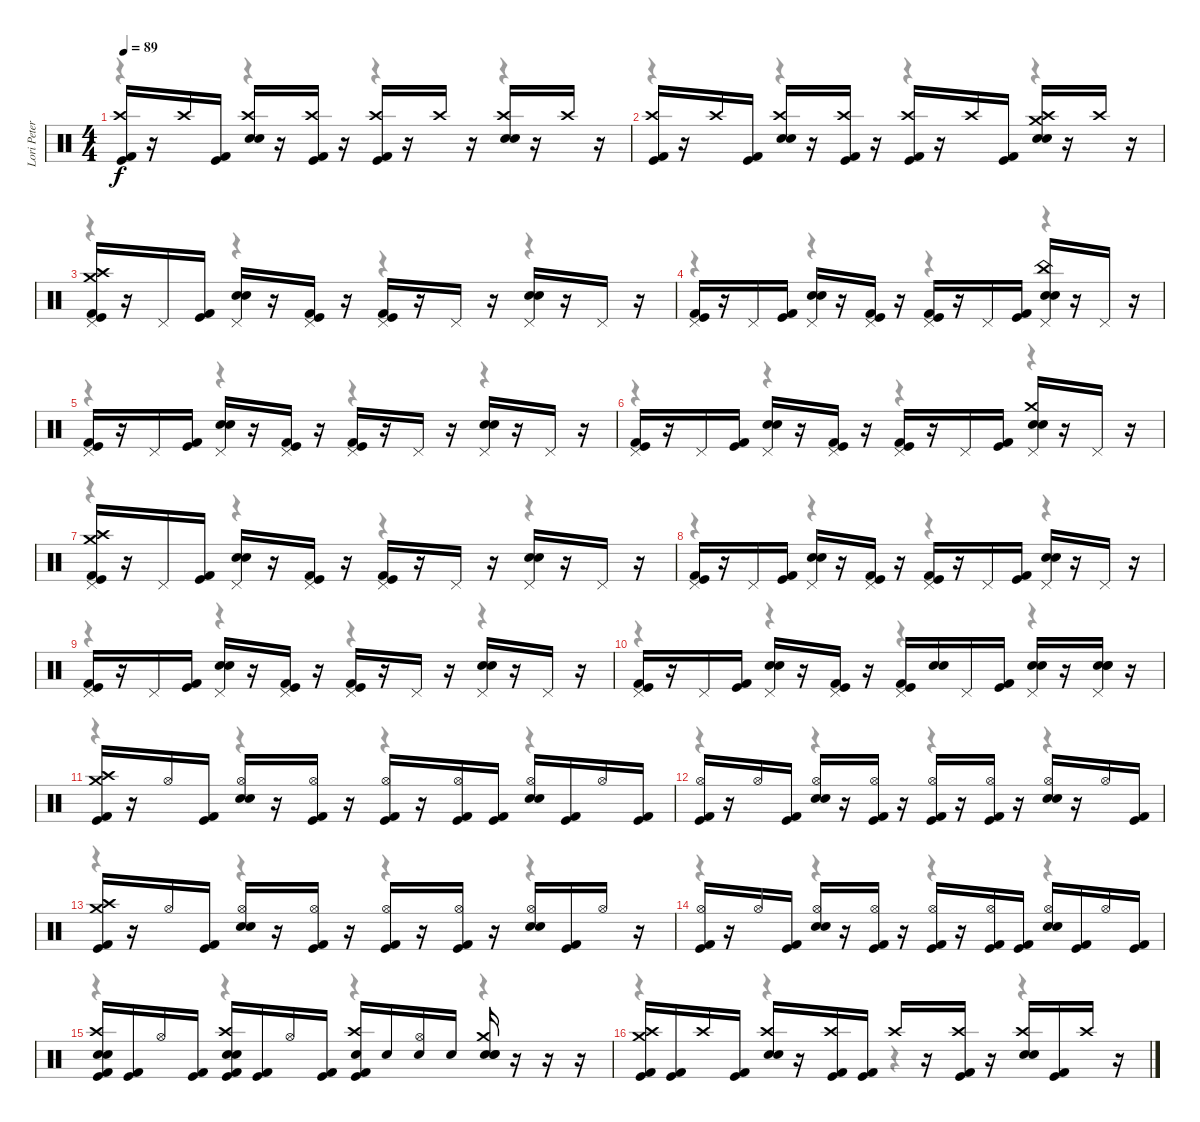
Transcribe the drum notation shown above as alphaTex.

\track ("Lori Peters" "Lori Peter") {instrument percussion}
\staff {score}
\articulation defaults
\voice
\ts (4 4)
\tempo 89
\clef neutral
\ks c
("Crash high (hit)" "Kick (hit) 2" "Kick (hit)").16{dy f} r.16 "Crash high (hit)".16 ("Kick (hit) 2" "Kick (hit)").16 ("Crash high (hit)" "Snare (hit) 2" "Snare (hit) 2").16 r.16 ("Crash high (hit)" "Kick (hit) 2" "Kick (hit)").16 r.16 ("Crash high (hit)" "Kick (hit) 2" "Kick (hit)").16 r.16 "Crash high (hit)".16 r.16 ("Crash high (hit)" "Snare (hit) 2" "Snare (hit) 2").16 r.16 "Crash high (hit)".16 r.16 |
("Crash high (hit)" "Kick (hit) 2" "Kick (hit)").16 r.16 "Crash high (hit)".16 ("Kick (hit) 2" "Kick (hit)").16 ("Crash high (hit)" "Snare (hit) 2" "Snare (hit) 2").16 r.16 ("Crash high (hit)" "Kick (hit) 2" "Kick (hit)").16 r.16 ("Crash high (hit)" "Kick (hit) 2" "Kick (hit)").16 r.16 "Crash high (hit)".16 ("Kick (hit) 2" "Kick (hit)").16 ("Crash high (hit)" "Crash medium (hit)" "Snare (hit) 2" "Snare (hit) 2").16 r.16 "Crash high (hit)".16 r.16 |
("Pedal Hi-Hat (hit)" "Crash medium (hit)" "Crash high (hit)" "Kick (hit) 2" "Kick (hit)").16 r.16 "Pedal Hi-Hat (hit)".16 ("Kick (hit) 2" "Kick (hit)").16 ("Pedal Hi-Hat (hit)" "Snare (hit) 2" "Snare (hit) 2").16 r.16 ("Pedal Hi-Hat (hit)" "Kick (hit) 2" "Kick (hit)").16 r.16 ("Pedal Hi-Hat (hit)" "Kick (hit) 2" "Kick (hit)").16 r.16 "Pedal Hi-Hat (hit)".16 r.16 ("Pedal Hi-Hat (hit)" "Snare (hit) 2" "Snare (hit) 2").16 r.16 "Pedal Hi-Hat (hit)".16 r.16 |
("Pedal Hi-Hat (hit)" "Kick (hit) 2" "Kick (hit)").16 r.16 "Pedal Hi-Hat (hit)".16 ("Kick (hit) 2" "Kick (hit)").16 ("Pedal Hi-Hat (hit)" "Snare (hit) 2" "Snare (hit) 2").16 r.16 ("Pedal Hi-Hat (hit)" "Kick (hit) 2" "Kick (hit)").16 r.16 ("Pedal Hi-Hat (hit)" "Kick (hit) 2" "Kick (hit)").16 r.16 "Pedal Hi-Hat (hit)".16 ("Kick (hit) 2" "Kick (hit)").16 ("Pedal Hi-Hat (hit)" "China (hit)" "Snare (hit) 2" "Snare (hit) 2").16 r.16 "Pedal Hi-Hat (hit)".16 r.16 |
("Pedal Hi-Hat (hit)" "Kick (hit) 2" "Kick (hit)").16 r.16 "Pedal Hi-Hat (hit)".16 ("Kick (hit) 2" "Kick (hit)").16 ("Pedal Hi-Hat (hit)" "Snare (hit) 2" "Snare (hit) 2").16 r.16 ("Pedal Hi-Hat (hit)" "Kick (hit) 2" "Kick (hit)").16 r.16 ("Pedal Hi-Hat (hit)" "Kick (hit) 2" "Kick (hit)").16 r.16 "Pedal Hi-Hat (hit)".16 r.16 ("Pedal Hi-Hat (hit)" "Snare (hit) 2" "Snare (hit) 2").16 r.16 "Pedal Hi-Hat (hit)".16 r.16 |
("Pedal Hi-Hat (hit)" "Kick (hit) 2" "Kick (hit)").16 r.16 "Pedal Hi-Hat (hit)".16 ("Kick (hit) 2" "Kick (hit)").16 ("Pedal Hi-Hat (hit)" "Snare (hit) 2" "Snare (hit) 2").16 r.16 ("Pedal Hi-Hat (hit)" "Kick (hit) 2" "Kick (hit)").16 r.16 ("Pedal Hi-Hat (hit)" "Kick (hit) 2" "Kick (hit)").16 r.16 "Pedal Hi-Hat (hit)".16 ("Kick (hit) 2" "Kick (hit)").16 ("Pedal Hi-Hat (hit)" "Crash medium (hit)" "Snare (hit) 2" "Snare (hit) 2").16 r.16 "Pedal Hi-Hat (hit)".16 r.16 |
("Pedal Hi-Hat (hit)" "Crash medium (hit)" "Crash high (hit)" "Kick (hit) 2" "Kick (hit)").16 r.16 "Pedal Hi-Hat (hit)".16 ("Kick (hit) 2" "Kick (hit)").16 ("Pedal Hi-Hat (hit)" "Snare (hit) 2" "Snare (hit) 2").16 r.16 ("Pedal Hi-Hat (hit)" "Kick (hit) 2" "Kick (hit)").16 r.16 ("Pedal Hi-Hat (hit)" "Kick (hit) 2" "Kick (hit)").16 r.16 "Pedal Hi-Hat (hit)".16 r.16 ("Pedal Hi-Hat (hit)" "Snare (hit) 2" "Snare (hit) 2").16 r.16 "Pedal Hi-Hat (hit)".16 r.16 |
("Pedal Hi-Hat (hit)" "Kick (hit) 2" "Kick (hit)").16 r.16 "Pedal Hi-Hat (hit)".16 ("Kick (hit) 2" "Kick (hit)").16 ("Pedal Hi-Hat (hit)" "Snare (hit) 2" "Snare (hit) 2").16 r.16 ("Pedal Hi-Hat (hit)" "Kick (hit) 2" "Kick (hit)").16 r.16 ("Pedal Hi-Hat (hit)" "Kick (hit) 2" "Kick (hit)").16 r.16 "Pedal Hi-Hat (hit)".16 ("Kick (hit) 2" "Kick (hit)").16 ("Pedal Hi-Hat (hit)" "Snare (hit) 2" "Snare (hit) 2").16 r.16 "Pedal Hi-Hat (hit)".16 r.16 |
("Pedal Hi-Hat (hit)" "Kick (hit) 2" "Kick (hit)").16 r.16 "Pedal Hi-Hat (hit)".16 ("Kick (hit) 2" "Kick (hit)").16 ("Pedal Hi-Hat (hit)" "Snare (hit) 2" "Snare (hit) 2").16 r.16 ("Pedal Hi-Hat (hit)" "Kick (hit) 2" "Kick (hit)").16 r.16 ("Pedal Hi-Hat (hit)" "Kick (hit) 2" "Kick (hit)").16 r.16 "Pedal Hi-Hat (hit)".16 r.16 ("Pedal Hi-Hat (hit)" "Snare (hit) 2" "Snare (hit) 2").16 r.16 "Pedal Hi-Hat (hit)".16 r.16 |
("Pedal Hi-Hat (hit)" "Kick (hit) 2" "Kick (hit)").16 r.16 "Pedal Hi-Hat (hit)".16 ("Kick (hit) 2" "Kick (hit)").16 ("Pedal Hi-Hat (hit)" "Snare (hit) 2" "Snare (hit) 2").16 r.16 ("Pedal Hi-Hat (hit)" "Kick (hit) 2" "Kick (hit)").16 r.16 ("Pedal Hi-Hat (hit)" "Kick (hit) 2" "Kick (hit)").16 ("Snare (hit) 2" "Snare (hit) 2").16 "Pedal Hi-Hat (hit)".16 ("Kick (hit) 2" "Kick (hit)").16 ("Pedal Hi-Hat (hit)" "Snare (hit) 2" "Snare (hit) 2").16 r.16 ("Pedal Hi-Hat (hit)" "Snare (hit) 2" "Snare (hit) 2" "Snare (hit) 2").16 r.16 |
("Crash high (hit)" "Crash medium (hit)" "Kick (hit) 2" "Kick (hit)").16 r.16 "Hi-Hat (open)".16 ("Kick (hit) 2" "Kick (hit)").16 ("Hi-Hat (open)" "Snare (hit) 2" "Snare (hit) 2").16 r.16 ("Hi-Hat (open)" "Kick (hit) 2" "Kick (hit)").16 r.16 ("Hi-Hat (open)" "Kick (hit) 2" "Kick (hit)").16 r.16 ("Hi-Hat (open)" "Kick (hit) 2" "Kick (hit)").16 ("Kick (hit) 2" "Kick (hit)").16 ("Hi-Hat (open)" "Snare (hit) 2" "Snare (hit) 2").16 ("Kick (hit) 2" "Kick (hit)").16 "Hi-Hat (open)".16 ("Kick (hit) 2" "Kick (hit)").16 |
("Hi-Hat (open)" "Kick (hit) 2" "Kick (hit)").16 r.16 "Hi-Hat (open)".16 ("Kick (hit) 2" "Kick (hit)").16 ("Hi-Hat (open)" "Snare (hit) 2" "Snare (hit) 2").16 r.16 ("Hi-Hat (open)" "Kick (hit) 2" "Kick (hit)").16 r.16 ("Hi-Hat (open)" "Kick (hit) 2" "Kick (hit)").16 r.16 ("Hi-Hat (open)" "Kick (hit) 2" "Kick (hit)").16 r.16 ("Hi-Hat (open)" "Snare (hit) 2" "Snare (hit) 2").16 r.16 "Hi-Hat (open)".16 ("Kick (hit) 2" "Kick (hit)").16 |
("Crash high (hit)" "Crash medium (hit)" "Kick (hit) 2" "Kick (hit)").16 r.16 "Hi-Hat (open)".16 ("Kick (hit) 2" "Kick (hit)").16 ("Hi-Hat (open)" "Snare (hit) 2" "Snare (hit) 2").16 r.16 ("Hi-Hat (open)" "Kick (hit) 2" "Kick (hit)").16 r.16 ("Hi-Hat (open)" "Kick (hit) 2" "Kick (hit)").16 r.16 ("Hi-Hat (open)" "Kick (hit) 2" "Kick (hit)").16 r.16 ("Hi-Hat (open)" "Snare (hit) 2" "Snare (hit) 2").16 ("Kick (hit) 2" "Kick (hit)").16 "Hi-Hat (open)".16 r.16 |
("Hi-Hat (open)" "Kick (hit) 2" "Kick (hit)").16 r.16 "Hi-Hat (open)".16 ("Kick (hit) 2" "Kick (hit)").16 ("Hi-Hat (open)" "Snare (hit) 2" "Snare (hit) 2").16 r.16 ("Hi-Hat (open)" "Kick (hit) 2" "Kick (hit)").16 r.16 ("Hi-Hat (open)" "Kick (hit) 2" "Kick (hit)").16 r.16 ("Hi-Hat (open)" "Kick (hit) 2" "Kick (hit)").16 ("Kick (hit) 2" "Kick (hit)").16 ("Hi-Hat (open)" "Snare (hit) 2" "Snare (hit) 2").16 ("Kick (hit) 2" "Kick (hit)").16 "Hi-Hat (open)".16 ("Kick (hit) 2" "Kick (hit)").16 |
("Crash high (hit)" "Snare (hit) 2" "Snare (hit) 2" "Kick (hit) 2" "Kick (hit)").16 ("Kick (hit) 2" "Kick (hit)").16 "Hi-Hat (open)".16 ("Kick (hit) 2" "Kick (hit)").16 ("Crash high (hit)" "Snare (hit) 2" "Snare (hit) 2" "Kick (hit) 2" "Kick (hit)").16 ("Kick (hit) 2" "Kick (hit)").16 "Hi-Hat (open)".16 ("Kick (hit) 2" "Kick (hit)").16 ("Crash high (hit)" "Snare (hit) 2" "Kick (hit) 2" "Kick (hit)").16 "Snare (hit) 2".16 ("Hi-Hat (open)" "Snare (hit) 2").16 "Snare (hit) 2".16 ("Crash medium (hit)" "Snare (hit) 2" "Snare (hit) 2" "Snare (hit) 2").16 r.16 r.16 r.16 |
("Crash high (hit)" "Crash medium (hit)" "Kick (hit) 2" "Kick (hit)").16 ("Kick (hit) 2" "Kick (hit)").16 "Crash high (hit)".16 ("Kick (hit) 2" "Kick (hit)").16 ("Crash high (hit)" "Snare (hit) 2" "Snare (hit) 2").16 r.16 ("Crash high (hit)" "Kick (hit) 2" "Kick (hit)").16 ("Kick (hit) 2" "Kick (hit)").16 "Crash high (hit)".16 r.16 ("Crash high (hit)" "Kick (hit) 2" "Kick (hit)").16 r.16 ("Crash high (hit)" "Snare (hit) 2" "Snare (hit) 2").16 ("Kick (hit) 2" "Kick (hit)").16 "Crash high (hit)".16 r.16
\voice
\clef neutral
\ottava regular
\simile none
\ks c
r.4{dy f} r.4 r.4 r.4 |
r.4 r.4 r.4 r.4 |
r.4 r.4 r.4 r.4 |
r.4 r.4 r.4 r.4 |
r.4 r.4 r.4 r.4 |
r.4 r.4 r.4 r.4 |
r.4 r.4 r.4 r.4 |
r.4 r.4 r.4 r.4 |
r.4 r.4 r.4 r.4 |
r.4 r.4 r.4 r.4 |
r.4 r.4 r.4 r.4 |
r.4 r.4 r.4 r.4 |
r.4 r.4 r.4 r.4 |
r.4 r.4 r.4 r.4 |
r.4 r.4 r.4 r.4 |
r.4 r.4 r.4 r.4
